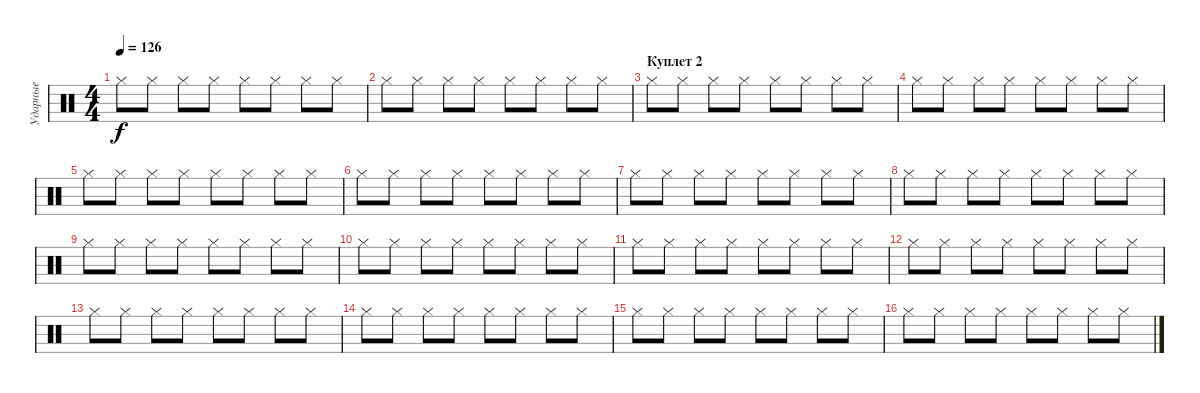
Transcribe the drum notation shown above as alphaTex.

\track ("Ударные" "Ударные") {instrument percussion}
\staff {score}
\articulation defaults
\ts (4 4)
\tempo 126
\clef neutral
\ks c "Hi-Hat (closed)".8{dy f} "Hi-Hat (closed)".8 "Hi-Hat (closed)".8 "Hi-Hat (closed)".8 "Hi-Hat (closed)".8 "Hi-Hat (closed)".8 "Hi-Hat (closed)".8 "Hi-Hat (closed)".8
|
"Hi-Hat (closed)".8 "Hi-Hat (closed)".8 "Hi-Hat (closed)".8 "Hi-Hat (closed)".8 "Hi-Hat (closed)".8 "Hi-Hat (closed)".8 "Hi-Hat (closed)".8 "Hi-Hat (closed)".8 |
\section ("" "Куплет 2")
"Hi-Hat (closed)".8 "Hi-Hat (closed)".8 "Hi-Hat (closed)".8 "Hi-Hat (closed)".8 "Hi-Hat (closed)".8 "Hi-Hat (closed)".8 "Hi-Hat (closed)".8 "Hi-Hat (closed)".8 |
"Hi-Hat (closed)".8 "Hi-Hat (closed)".8 "Hi-Hat (closed)".8 "Hi-Hat (closed)".8 "Hi-Hat (closed)".8 "Hi-Hat (closed)".8 "Hi-Hat (closed)".8 "Hi-Hat (closed)".8 |
"Hi-Hat (closed)".8 "Hi-Hat (closed)".8 "Hi-Hat (closed)".8 "Hi-Hat (closed)".8 "Hi-Hat (closed)".8 "Hi-Hat (closed)".8 "Hi-Hat (closed)".8 "Hi-Hat (closed)".8 |
"Hi-Hat (closed)".8 "Hi-Hat (closed)".8 "Hi-Hat (closed)".8 "Hi-Hat (closed)".8 "Hi-Hat (closed)".8 "Hi-Hat (closed)".8 "Hi-Hat (closed)".8 "Hi-Hat (closed)".8 |
"Hi-Hat (closed)".8 "Hi-Hat (closed)".8 "Hi-Hat (closed)".8 "Hi-Hat (closed)".8 "Hi-Hat (closed)".8 "Hi-Hat (closed)".8 "Hi-Hat (closed)".8 "Hi-Hat (closed)".8 |
"Hi-Hat (closed)".8 "Hi-Hat (closed)".8 "Hi-Hat (closed)".8 "Hi-Hat (closed)".8 "Hi-Hat (closed)".8 "Hi-Hat (closed)".8 "Hi-Hat (closed)".8 "Hi-Hat (closed)".8 |
"Hi-Hat (closed)".8 "Hi-Hat (closed)".8 "Hi-Hat (closed)".8 "Hi-Hat (closed)".8 "Hi-Hat (closed)".8 "Hi-Hat (closed)".8 "Hi-Hat (closed)".8 "Hi-Hat (closed)".8 |
"Hi-Hat (closed)".8 "Hi-Hat (closed)".8 "Hi-Hat (closed)".8 "Hi-Hat (closed)".8 "Hi-Hat (closed)".8 "Hi-Hat (closed)".8 "Hi-Hat (closed)".8 "Hi-Hat (closed)".8 |
"Hi-Hat (closed)".8 "Hi-Hat (closed)".8 "Hi-Hat (closed)".8 "Hi-Hat (closed)".8 "Hi-Hat (closed)".8 "Hi-Hat (closed)".8 "Hi-Hat (closed)".8 "Hi-Hat (closed)".8 |
"Hi-Hat (closed)".8 "Hi-Hat (closed)".8 "Hi-Hat (closed)".8 "Hi-Hat (closed)".8 "Hi-Hat (closed)".8 "Hi-Hat (closed)".8 "Hi-Hat (closed)".8 "Hi-Hat (closed)".8 |
"Hi-Hat (closed)".8 "Hi-Hat (closed)".8 "Hi-Hat (closed)".8 "Hi-Hat (closed)".8 "Hi-Hat (closed)".8 "Hi-Hat (closed)".8 "Hi-Hat (closed)".8 "Hi-Hat (closed)".8 |
"Hi-Hat (closed)".8 "Hi-Hat (closed)".8 "Hi-Hat (closed)".8 "Hi-Hat (closed)".8 "Hi-Hat (closed)".8 "Hi-Hat (closed)".8 "Hi-Hat (closed)".8 "Hi-Hat (closed)".8 |
"Hi-Hat (closed)".8 "Hi-Hat (closed)".8 "Hi-Hat (closed)".8 "Hi-Hat (closed)".8 "Hi-Hat (closed)".8 "Hi-Hat (closed)".8 "Hi-Hat (closed)".8 "Hi-Hat (closed)".8 |
"Hi-Hat (closed)".8 "Hi-Hat (closed)".8 "Hi-Hat (closed)".8 "Hi-Hat (closed)".8 "Hi-Hat (closed)".8 "Hi-Hat (closed)".8 "Hi-Hat (closed)".8 "Hi-Hat (closed)".8
